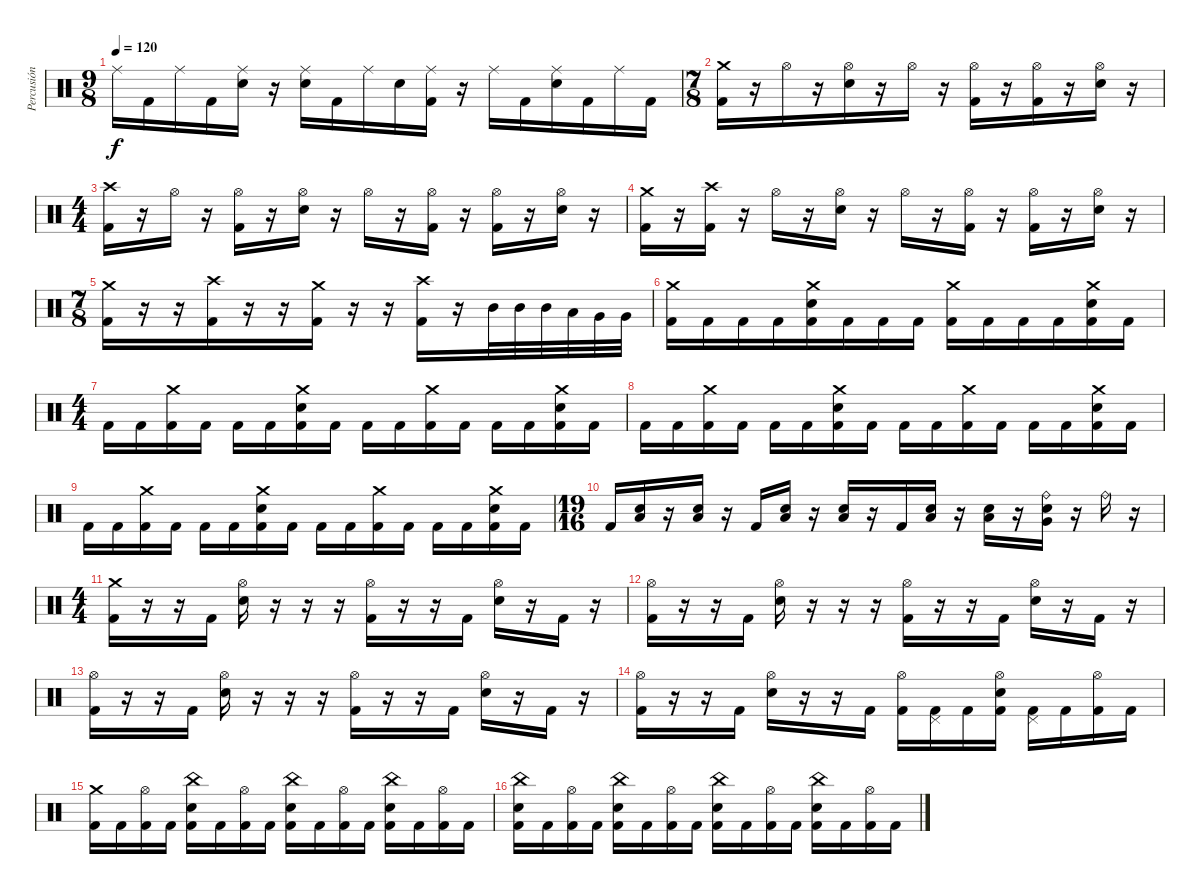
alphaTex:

\track ("Percusión" "Percusión") {instrument percussion}
\staff {score}
\articulation defaults
\ts (9 8)
\tempo 120
\clef neutral
\ks c "Ride (middle)".16{dy f} "Kick (hit) 2".16 "Ride (middle)".16 "Kick (hit) 2".16
("Ride (middle)" "Electric Snare (hit)").16 r.16 ("Ride (middle)" "Electric Snare (hit)").16 "Kick (hit) 2".16 "Ride (middle)".16 "Electric Snare (hit)".16 ("Ride (middle)" "Kick (hit) 2").16 r.16 "Ride (middle)".16 "Kick (hit) 2".16 ("Ride (middle)" "Electric Snare (hit)").16 "Kick (hit) 2".16 "Ride (middle)".16 "Kick (hit) 2".16 |
\ts (7 8)
("Crash medium (hit)" "Kick (hit) 2").16 r.16 "Hi-Hat (open)".16 r.16 ("Hi-Hat (open)" "Electric Snare (hit)").16 r.16 "Hi-Hat (open)".16 r.16 ("Hi-Hat (open)" "Kick (hit) 2").16 r.16 ("Hi-Hat (open)" "Kick (hit) 2").16 r.16 ("Hi-Hat (open)" "Electric Snare (hit)").16 r.16 |
\ts (4 4)
("Crash high (hit)" "Kick (hit) 2").16 r.16 "Hi-Hat (open)".16 r.16 ("Hi-Hat (open)" "Kick (hit) 2").16 r.16 ("Hi-Hat (open)" "Electric Snare (hit)").16 r.16 "Hi-Hat (open)".16 r.16 ("Hi-Hat (open)" "Kick (hit) 2").16 r.16 ("Hi-Hat (open)" "Kick (hit) 2").16 r.16 ("Hi-Hat (open)" "Electric Snare (hit)").16 r.16 |
("Crash medium (hit)" "Kick (hit) 2").16 r.16 ("Crash high (hit)" "Kick (hit) 2").16 r.16 "Hi-Hat (open)".16 r.16 ("Hi-Hat (open)" "Electric Snare (hit)").16 r.16 "Hi-Hat (open)".16 r.16 ("Hi-Hat (open)" "Kick (hit) 2").16 r.16 ("Hi-Hat (open)" "Kick (hit) 2").16 r.16 ("Hi-Hat (open)" "Electric Snare (hit)").16 r.16 |
\ts (7 8)
("Crash medium (hit)" "Kick (hit) 2").16 r.16 r.16 ("Crash high (hit)" "Kick (hit) 2").16 r.16 r.16 ("Crash medium (hit)" "Kick (hit) 2").16 r.16 r.16 ("Crash high (hit)" "Kick (hit) 2").16 r.16 "Mid Tom (hit)".32 "Mid Tom (hit)".32 "Mid Tom (hit)".32 "Low Tom (hit)".32 "Very Low Tom (hit)".32 "Very Low Tom (hit)".32 |
("Crash medium (hit)" "Kick (hit) 2").16 "Kick (hit) 2".16 "Kick (hit) 2".16 "Kick (hit) 2".16 ("Crash medium (hit)" "Electric Snare (hit)" "Kick (hit) 2").16 "Kick (hit) 2".16 "Kick (hit) 2".16 "Kick (hit) 2".16 ("Crash medium (hit)" "Kick (hit) 2").16 "Kick (hit) 2".16 "Kick (hit) 2".16 "Kick (hit) 2".16 ("Crash medium (hit)" "Electric Snare (hit)" "Kick (hit) 2").16 "Kick (hit) 2".16 |
\ts (4 4)
"Kick (hit) 2".16 "Kick (hit) 2".16 ("Crash medium (hit)" "Kick (hit) 2").16 "Kick (hit) 2".16 "Kick (hit) 2".16 "Kick (hit) 2".16 ("Crash medium (hit)" "Electric Snare (hit)" "Kick (hit) 2").16 "Kick (hit) 2".16 "Kick (hit) 2".16 "Kick (hit) 2".16 ("Crash medium (hit)" "Kick (hit) 2").16 "Kick (hit) 2".16 "Kick (hit) 2".16 "Kick (hit) 2".16 ("Crash medium (hit)" "Electric Snare (hit)" "Kick (hit) 2").16 "Kick (hit) 2".16 |
"Kick (hit) 2".16 "Kick (hit) 2".16 ("Crash medium (hit)" "Kick (hit) 2").16 "Kick (hit) 2".16 "Kick (hit) 2".16 "Kick (hit) 2".16 ("Crash medium (hit)" "Electric Snare (hit)" "Kick (hit) 2").16 "Kick (hit) 2".16 "Kick (hit) 2".16 "Kick (hit) 2".16 ("Crash medium (hit)" "Kick (hit) 2").16 "Kick (hit) 2".16 "Kick (hit) 2".16 "Kick (hit) 2".16 ("Crash medium (hit)" "Electric Snare (hit)" "Kick (hit) 2").16 "Kick (hit) 2".16 |
"Kick (hit) 2".16 "Kick (hit) 2".16 ("Crash medium (hit)" "Kick (hit) 2").16 "Kick (hit) 2".16 "Kick (hit) 2".16 "Kick (hit) 2".16 ("Crash medium (hit)" "Electric Snare (hit)" "Kick (hit) 2").16 "Kick (hit) 2".16 "Kick (hit) 2".16 "Kick (hit) 2".16 ("Crash medium (hit)" "Kick (hit) 2").16 "Kick (hit) 2".16 "Kick (hit) 2".16 "Kick (hit) 2".16 ("Crash medium (hit)" "Electric Snare (hit)" "Kick (hit) 2").16 "Kick (hit) 2".16 |
\ts (19 16)
"Kick (hit) 2".16 ("Low Floor Tom (hit)" "Electric Snare (hit)").16 r.16 ("Low Floor Tom (hit)" "Electric Snare (hit)").16 r.16 "Kick (hit) 2".16 ("Low Floor Tom (hit)" "Electric Snare (hit)").16 r.16 ("Low Floor Tom (hit)" "Electric Snare (hit)").16 r.16 "Kick (hit) 2".16 ("Low Floor Tom (hit)" "Electric Snare (hit)").16 r.16 ("Low Floor Tom (hit)" "Electric Snare (hit)").16 r.16 ("Ride (bell)" "Very Low Tom (hit)" "Electric Snare (hit)").16 r.16 "Ride (bell)".16 r.16 |
\ts (4 4)
("Crash medium (hit)" "Kick (hit) 2").16 r.16 r.16 "Kick (hit) 2".16 ("Hi-Hat (open)" "Electric Snare (hit)").16 r.16 r.16 r.16 ("Hi-Hat (open)" "Kick (hit) 2").16 r.16 r.16 "Kick (hit) 2".16 ("Hi-Hat (open)" "Electric Snare (hit)").16 r.16 "Kick (hit) 2".16 r.16 |
("Hi-Hat (open)" "Kick (hit) 2").16 r.16 r.16 "Kick (hit) 2".16 ("Hi-Hat (open)" "Electric Snare (hit)").16 r.16 r.16 r.16 ("Hi-Hat (open)" "Kick (hit) 2").16 r.16 r.16 "Kick (hit) 2".16 ("Hi-Hat (open)" "Electric Snare (hit)").16 r.16 "Kick (hit) 2".16 r.16 |
("Hi-Hat (open)" "Kick (hit) 2").16 r.16 r.16 "Kick (hit) 2".16 ("Hi-Hat (open)" "Electric Snare (hit)").16 r.16 r.16 r.16 ("Hi-Hat (open)" "Kick (hit) 2").16 r.16 r.16 "Kick (hit) 2".16 ("Hi-Hat (open)" "Electric Snare (hit)").16 r.16 "Kick (hit) 2".16 r.16 |
("Hi-Hat (open)" "Kick (hit) 2").16 r.16 r.16 "Kick (hit) 2".16 ("Hi-Hat (open)" "Electric Snare (hit)").16 r.16 r.16 "Kick (hit) 2".16 ("Hi-Hat (open)" "Kick (hit) 2").16 ("Pedal Hi-Hat (hit)" "Kick (hit) 2").16 "Kick (hit) 2".16 ("Hi-Hat (open)" "Electric Snare (hit)" "Kick (hit) 2").16 ("Pedal Hi-Hat (hit)" "Kick (hit) 2").16 "Kick (hit) 2".16 ("Hi-Hat (open)" "Kick (hit) 2").16 "Kick (hit) 2".16 |
("Crash medium (hit)" "Kick (hit) 2").16 "Kick (hit) 2".16 ("Hi-Hat (open)" "Kick (hit) 2").16 "Kick (hit) 2".16 ("China (hit)" "Electric Snare (hit)" "Kick (hit) 2").16 "Kick (hit) 2".16 ("Hi-Hat (open)" "Kick (hit) 2").16 "Kick (hit) 2".16 ("China (hit)" "Electric Snare (hit)" "Kick (hit) 2").16 "Kick (hit) 2".16 ("Hi-Hat (open)" "Kick (hit) 2").16 "Kick (hit) 2".16 ("China (hit)" "Electric Snare (hit)" "Kick (hit) 2").16 "Kick (hit) 2".16 ("Hi-Hat (open)" "Kick (hit) 2").16 "Kick (hit) 2".16 |
("China (hit)" "Electric Snare (hit)" "Kick (hit) 2").16 "Kick (hit) 2".16 ("Hi-Hat (open)" "Kick (hit) 2").16 "Kick (hit) 2".16 ("China (hit)" "Electric Snare (hit)" "Kick (hit) 2").16 "Kick (hit) 2".16 ("Hi-Hat (open)" "Kick (hit) 2").16 "Kick (hit) 2".16 ("China (hit)" "Electric Snare (hit)" "Kick (hit) 2").16 "Kick (hit) 2".16 ("Hi-Hat (open)" "Kick (hit) 2").16 "Kick (hit) 2".16 ("China (hit)" "Electric Snare (hit)" "Kick (hit) 2").16 "Kick (hit) 2".16 ("Hi-Hat (open)" "Kick (hit) 2").16 "Kick (hit) 2".16
